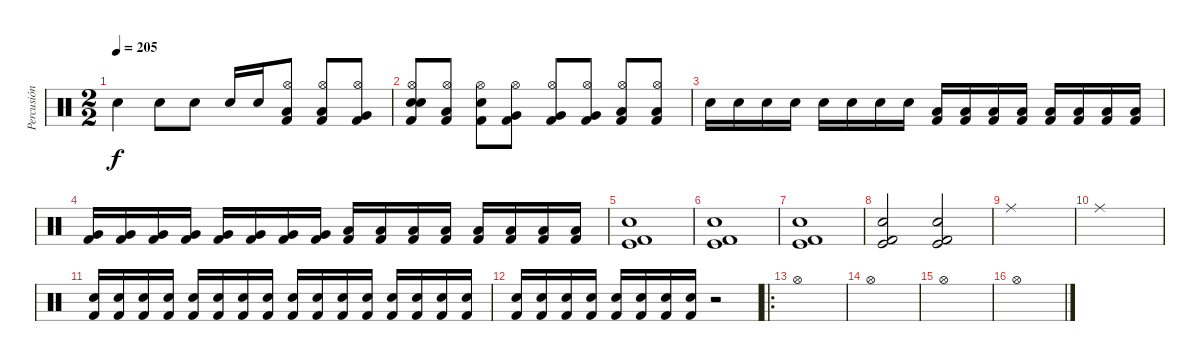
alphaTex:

\track ("Percusión" "Percusión") {instrument percussion}
\staff {score}
\articulation defaults
\ts (2 2)
\tempo 205
\clef neutral
\ks c "Electric Snare (hit)".4{dy f} "Electric Snare (hit)".8 "Electric Snare (hit)".8 "Electric Snare (hit)".16 "Electric Snare (hit)".16
("Kick (hit) 2" "Hi-Hat (open)" "Low Floor Tom (hit)").8 ("Kick (hit) 2" "Hi-Hat (open)" "Low Floor Tom (hit)").8 ("Kick (hit) 2" "Hi-Hat (open)" "Very Low Tom (hit)").8 |
("Kick (hit) 2" "Hi-Hat (open)" "Electric Snare (hit)" "Snare (hit)").8 ("Kick (hit) 2" "Hi-Hat (open)" "Low Floor Tom (hit)").8 ("Kick (hit) 2" "Hi-Hat (open)" "Electric Snare (hit)").8 ("Kick (hit) 2" "Hi-Hat (open)" "Very Low Tom (hit)").8 ("Kick (hit) 2" "Hi-Hat (open)" "Very Low Tom (hit)").8 ("Kick (hit) 2" "Hi-Hat (open)" "Very Low Tom (hit)").8 ("Kick (hit) 2" "Hi-Hat (open)" "Low Floor Tom (hit)").8 ("Kick (hit) 2" "Hi-Hat (open)" "Low Floor Tom (hit)").8 |
"Electric Snare (hit)".16 "Electric Snare (hit)".16 "Electric Snare (hit)".16 "Electric Snare (hit)".16 "Electric Snare (hit)".16 "Electric Snare (hit)".16 "Electric Snare (hit)".16 "Electric Snare (hit)".16 ("Kick (hit) 2" "Low Floor Tom (hit)").16 ("Kick (hit) 2" "Low Floor Tom (hit)").16 ("Kick (hit) 2" "Low Floor Tom (hit)").16 ("Kick (hit) 2" "Low Floor Tom (hit)").16 ("Kick (hit) 2" "Low Floor Tom (hit)").16 ("Kick (hit) 2" "Low Floor Tom (hit)").16 ("Kick (hit) 2" "Low Floor Tom (hit)").16 ("Kick (hit) 2" "Low Floor Tom (hit)").16 |
("Kick (hit) 2" "Very Low Tom (hit)").16 ("Kick (hit) 2" "Very Low Tom (hit)").16 ("Kick (hit) 2" "Very Low Tom (hit)").16 ("Kick (hit) 2" "Very Low Tom (hit)").16 ("Kick (hit) 2" "Very Low Tom (hit)").16 ("Kick (hit) 2" "Very Low Tom (hit)").16 ("Kick (hit) 2" "Very Low Tom (hit)").16 ("Kick (hit) 2" "Very Low Tom (hit)").16 ("Kick (hit) 2" "Low Floor Tom (hit)").16 ("Kick (hit) 2" "Low Floor Tom (hit)").16 ("Kick (hit) 2" "Low Floor Tom (hit)").16 ("Kick (hit) 2" "Low Floor Tom (hit)").16 ("Kick (hit) 2" "Low Floor Tom (hit)").16 ("Kick (hit) 2" "Low Floor Tom (hit)").16 ("Kick (hit) 2" "Low Floor Tom (hit)").16 ("Kick (hit) 2" "Low Floor Tom (hit)").16 |
("Electric Snare (hit)" "Kick (hit)" "Kick (hit) 2").1 |
("Electric Snare (hit)" "Kick (hit)" "Kick (hit) 2").1 |
("Electric Snare (hit)" "Kick (hit)" "Kick (hit) 2").1 |
("Electric Snare (hit)" "Kick (hit)" "Kick (hit) 2").2 ("Electric Snare (hit)" "Kick (hit)" "Kick (hit) 2").2 |
"Ride (middle)".1 |
"Ride (middle)".1 |
("Kick (hit) 2" "Electric Snare (hit)").16 ("Kick (hit) 2" "Electric Snare (hit)").16 ("Kick (hit) 2" "Electric Snare (hit)").16 ("Kick (hit) 2" "Electric Snare (hit)").16 ("Kick (hit) 2" "Electric Snare (hit)").16 ("Kick (hit) 2" "Electric Snare (hit)").16 ("Kick (hit) 2" "Electric Snare (hit)").16 ("Kick (hit) 2" "Electric Snare (hit)").16 ("Kick (hit) 2" "Electric Snare (hit)").16 ("Kick (hit) 2" "Electric Snare (hit)").16 ("Kick (hit) 2" "Electric Snare (hit)").16 ("Kick (hit) 2" "Electric Snare (hit)").16 ("Kick (hit) 2" "Electric Snare (hit)").16 ("Kick (hit) 2" "Electric Snare (hit)").16 ("Kick (hit) 2" "Electric Snare (hit)").16 ("Kick (hit) 2" "Electric Snare (hit)").16 |
("Kick (hit) 2" "Electric Snare (hit)").16 ("Kick (hit) 2" "Electric Snare (hit)").16 ("Kick (hit) 2" "Electric Snare (hit)").16 ("Kick (hit) 2" "Electric Snare (hit)").16 ("Kick (hit) 2" "Electric Snare (hit)").16 ("Kick (hit) 2" "Electric Snare (hit)").16 ("Kick (hit) 2" "Electric Snare (hit)").16 ("Kick (hit) 2" "Electric Snare (hit)").16 r.2 |
\ro "Hi-Hat (open)".1
|
"Hi-Hat (open)".1 |
"Hi-Hat (open)".1 |
"Hi-Hat (open)".1
